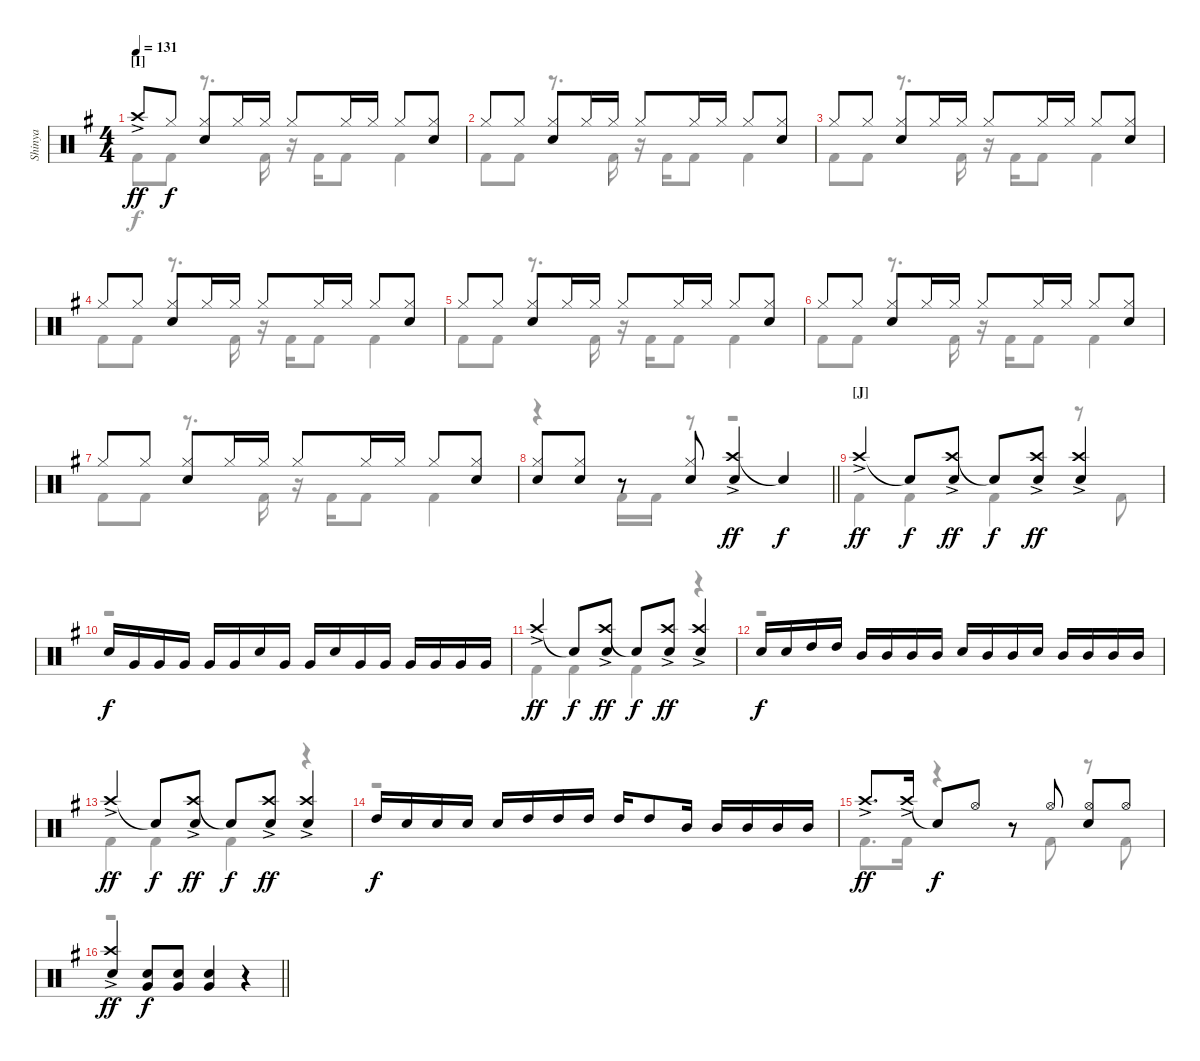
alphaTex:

\track ("Shinya" "Shinya") {instrument percussion}
\staff {score}
\articulation defaults
\voice
\ts (4 4)
\section ("" "[I]")
\tempo 131
\clef neutral
\ks eminor "Crash high (hit)"{ac}.8{dy ff} "Hi-Hat (closed)".8{dy f}
("Hi-Hat (closed)" "Snare (hit) 2").8 "Hi-Hat (closed)".16 "Hi-Hat (closed)".16 "Hi-Hat (closed)".8 "Hi-Hat (closed)".16 "Hi-Hat (closed)".16 "Hi-Hat (closed)".8 ("Hi-Hat (closed)" "Snare (hit) 2").8 |
"Hi-Hat (closed)".8 "Hi-Hat (closed)".8 ("Hi-Hat (closed)" "Snare (hit) 2").8 "Hi-Hat (closed)".16 "Hi-Hat (closed)".16 "Hi-Hat (closed)".8 "Hi-Hat (closed)".16 "Hi-Hat (closed)".16 "Hi-Hat (closed)".8 ("Hi-Hat (closed)" "Snare (hit) 2").8 |
"Hi-Hat (closed)".8 "Hi-Hat (closed)".8 ("Hi-Hat (closed)" "Snare (hit) 2").8 "Hi-Hat (closed)".16 "Hi-Hat (closed)".16 "Hi-Hat (closed)".8 "Hi-Hat (closed)".16 "Hi-Hat (closed)".16 "Hi-Hat (closed)".8 ("Hi-Hat (closed)" "Snare (hit) 2").8 |
"Hi-Hat (closed)".8 "Hi-Hat (closed)".8 ("Hi-Hat (closed)" "Snare (hit) 2").8 "Hi-Hat (closed)".16 "Hi-Hat (closed)".16 "Hi-Hat (closed)".8 "Hi-Hat (closed)".16 "Hi-Hat (closed)".16 "Hi-Hat (closed)".8 ("Hi-Hat (closed)" "Snare (hit) 2").8 |
"Hi-Hat (closed)".8 "Hi-Hat (closed)".8 ("Hi-Hat (closed)" "Snare (hit) 2").8 "Hi-Hat (closed)".16 "Hi-Hat (closed)".16 "Hi-Hat (closed)".8 "Hi-Hat (closed)".16 "Hi-Hat (closed)".16 "Hi-Hat (closed)".8 ("Hi-Hat (closed)" "Snare (hit) 2").8 |
"Hi-Hat (closed)".8 "Hi-Hat (closed)".8 ("Hi-Hat (closed)" "Snare (hit) 2").8 "Hi-Hat (closed)".16 "Hi-Hat (closed)".16 "Hi-Hat (closed)".8 "Hi-Hat (closed)".16 "Hi-Hat (closed)".16 "Hi-Hat (closed)".8 ("Hi-Hat (closed)" "Snare (hit) 2").8 |
"Hi-Hat (closed)".8 "Hi-Hat (closed)".8 ("Hi-Hat (closed)" "Snare (hit) 2").8 "Hi-Hat (closed)".16 "Hi-Hat (closed)".16 "Hi-Hat (closed)".8 "Hi-Hat (closed)".16 "Hi-Hat (closed)".16 "Hi-Hat (closed)".8 ("Hi-Hat (closed)" "Snare (hit) 2").8 |
\barLineRight lightlight
("Hi-Hat (closed)" "Snare (hit) 2").8 ("Hi-Hat (closed)" "Snare (hit) 2").8 r.8 ("Hi-Hat (closed)" "Snare (hit) 2").8 ("Crash high (hit)"{ac} "Snare (hit) 2").4{dy ff} "Snare (hit)"{t}.4{dy f} |
\section ("" "[J]")
"Crash high (hit)"{ac}.4{dy ff} "Snare (hit)"{t}.8{dy f} ("Crash high (hit)"{ac} "Snare (hit) 2").8{dy ff} "Snare (hit)"{t}.8{dy f} ("Crash high (hit)"{ac} "Snare (hit) 2").8{dy ff} ("Crash high (hit)"{ac} "Snare (hit) 2").4 |
"Snare (hit) 2".16{dy f} "Very Low Tom (hit)".16 "Very Low Tom (hit)".16 "Very Low Tom (hit)".16 "Very Low Tom (hit)".16 "Very Low Tom (hit)".16 "Snare (hit) 2".16 "Very Low Tom (hit)".16 "Very Low Tom (hit)".16 "Snare (hit) 2".16 "Very Low Tom (hit)".16 "Very Low Tom (hit)".16 "Very Low Tom (hit)".16 "Very Low Tom (hit)".16 "Very Low Tom (hit)".16 "Very Low Tom (hit)".16 |
"Crash high (hit)"{ac}.4{dy ff} "Snare (hit)"{t}.8{dy f} ("Crash high (hit)"{ac} "Snare (hit) 2").8{dy ff} "Snare (hit)"{t}.8{dy f} ("Crash high (hit)"{ac} "Snare (hit) 2").8{dy ff} ("Crash high (hit)"{ac} "Snare (hit) 2").4 |
"Snare (hit) 2".16{dy f} "Snare (hit) 2".16 "High Tom (hit)".16 "High Tom (hit)".16 "Mid Tom (hit)".16 "Mid Tom (hit)".16 "Mid Tom (hit)".16 "Mid Tom (hit)".16 "Snare (hit) 2".16 "Mid Tom (hit)".16 "Mid Tom (hit)".16 "Snare (hit) 2".16 "Mid Tom (hit)".16 "Mid Tom (hit)".16 "Mid Tom (hit)".16 "Mid Tom (hit)".16 |
"Crash high (hit)"{ac}.4{dy ff} "Snare (hit)"{t}.8{dy f} ("Crash high (hit)"{ac} "Snare (hit) 2").8{dy ff} "Snare (hit)"{t}.8{dy f} ("Crash high (hit)"{ac} "Snare (hit) 2").8{dy ff} ("Crash high (hit)"{ac} "Snare (hit) 2").4 |
"High Tom (hit)".16{dy f} "Snare (hit) 2".16 "Snare (hit) 2".16 "Snare (hit) 2".16 "Snare (hit) 2".16 "High Tom (hit)".16 "High Tom (hit)".16 "High Tom (hit)".16 "High Tom (hit)".16 "High Tom (hit)".8 "Mid Tom (hit)".16 "Mid Tom (hit)".16 "Mid Tom (hit)".16 "Mid Tom (hit)".16 "Mid Tom (hit)".16 |
"Crash high (hit)"{ac}.8{d dy ff} "Crash high (hit)"{ac}.16 "Snare (hit)"{t}.8{dy f} "Hi-Hat (open)".8 r.8 "Hi-Hat (open)".8 ("Hi-Hat (open)" "Snare (hit) 2").8 "Hi-Hat (open)".8 |
\barLineRight lightlight
("Crash high (hit)"{ac} "Snare (hit) 2").4{dy ff} ("Snare (hit) 2" "Very Low Tom (hit)").8{dy f} ("Snare (hit) 2" "Very Low Tom (hit)").8 ("Snare (hit) 2" "Very Low Tom (hit)").4 r.4
\voice
\clef neutral
\ottava regular
\simile none
\ks eminor "Kick (hit) 2".8{dy f} "Kick (hit) 2".8
r.8{d} "Kick (hit) 2".16 r.16 "Kick (hit) 2".16 "Kick (hit) 2".8 "Kick (hit) 2".4 |
"Kick (hit) 2".8 "Kick (hit) 2".8 r.8{d} "Kick (hit) 2".16 r.16 "Kick (hit) 2".16 "Kick (hit) 2".8 "Kick (hit) 2".4 |
"Kick (hit) 2".8 "Kick (hit) 2".8 r.8{d} "Kick (hit) 2".16 r.16 "Kick (hit) 2".16 "Kick (hit) 2".8 "Kick (hit) 2".4 |
"Kick (hit) 2".8 "Kick (hit) 2".8 r.8{d} "Kick (hit) 2".16 r.16 "Kick (hit) 2".16 "Kick (hit) 2".8 "Kick (hit) 2".4 |
"Kick (hit) 2".8 "Kick (hit) 2".8 r.8{d} "Kick (hit) 2".16 r.16 "Kick (hit) 2".16 "Kick (hit) 2".8 "Kick (hit) 2".4 |
"Kick (hit) 2".8 "Kick (hit) 2".8 r.8{d} "Kick (hit) 2".16 r.16 "Kick (hit) 2".16 "Kick (hit) 2".8 "Kick (hit) 2".4 |
"Kick (hit) 2".8 "Kick (hit) 2".8 r.8{d} "Kick (hit) 2".16 r.16 "Kick (hit) 2".16 "Kick (hit) 2".8 "Kick (hit) 2".4 |
\barLineRight lightlight
r.4 "Kick (hit) 2".16 "Kick (hit) 2".16 r.8 r.2 |
"Kick (hit) 2".4 "Kick (hit) 2".4 "Kick (hit) 2".4 r.8 "Kick (hit) 2".8 |
r.1 |
"Kick (hit) 2".4 "Kick (hit) 2".4 "Kick (hit) 2".4 r.4 |
r.1 |
"Kick (hit) 2".4 "Kick (hit) 2".4 "Kick (hit) 2".4 r.4 |
r.1 |
"Kick (hit) 2".8{d} "Kick (hit) 2".16 r.4 r.8 "Kick (hit) 2".8 r.8 "Kick (hit) 2".8 |
\barLineRight lightlight
r.1
